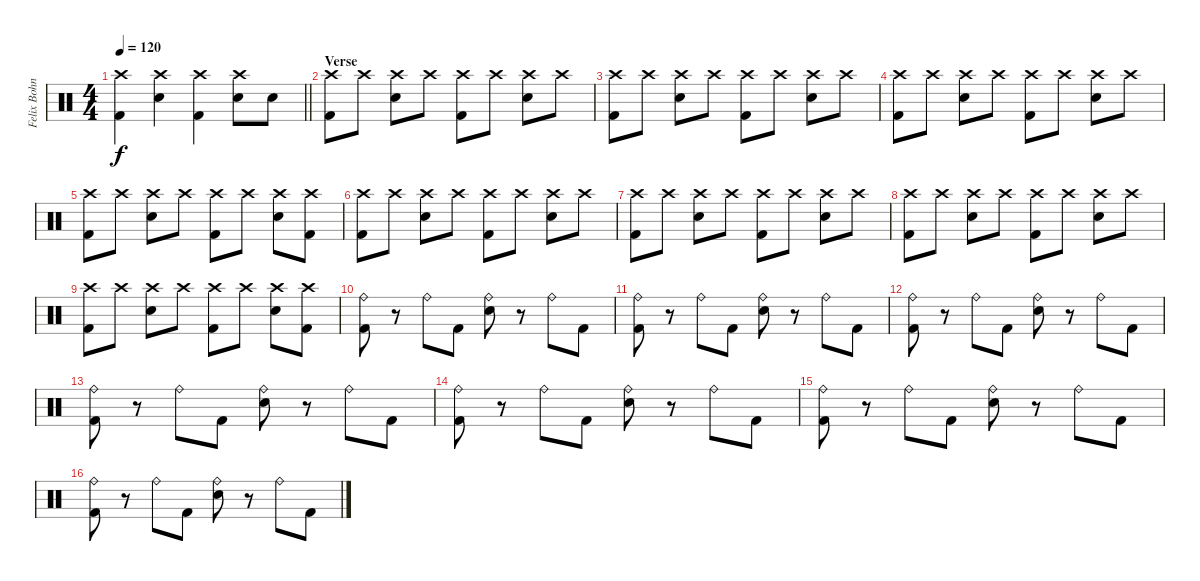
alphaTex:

\track ("Felix Bohnke (Drums)" "Felix Bohn") {instrument percussion}
\staff {score}
\articulation defaults
\ts (4 4)
\tempo 120
\clef neutral
\barLineRight lightlight
\ks c
("Crash high (hit)" "Kick (hit) 2").4{dy f} ("Crash high (hit)" "Snare (hit) 2").4 ("Crash high (hit)" "Kick (hit) 2").4 ("Crash high (hit)" "Snare (hit) 2").8 "Snare (hit) 2".8 |
\section ("" "Verse")
("Crash high (hit)" "Kick (hit) 2").8 "Crash high (hit)".8 ("Crash high (hit)" "Snare (hit) 2").8 "Crash high (hit)".8 ("Crash high (hit)" "Kick (hit) 2").8 "Crash high (hit)".8 ("Crash high (hit)" "Snare (hit) 2").8 "Crash high (hit)".8 |
("Crash high (hit)" "Kick (hit) 2").8 "Crash high (hit)".8 ("Crash high (hit)" "Snare (hit) 2").8 "Crash high (hit)".8 ("Crash high (hit)" "Kick (hit) 2").8 "Crash high (hit)".8 ("Crash high (hit)" "Snare (hit) 2").8 "Crash high (hit)".8 |
("Crash high (hit)" "Kick (hit) 2").8 "Crash high (hit)".8 ("Crash high (hit)" "Snare (hit) 2").8 "Crash high (hit)".8 ("Crash high (hit)" "Kick (hit) 2").8 "Crash high (hit)".8 ("Crash high (hit)" "Snare (hit) 2").8 "Crash high (hit)".8 |
("Crash high (hit)" "Kick (hit) 2").8 "Crash high (hit)".8 ("Crash high (hit)" "Snare (hit) 2").8 "Crash high (hit)".8 ("Crash high (hit)" "Kick (hit) 2").8 "Crash high (hit)".8 ("Crash high (hit)" "Snare (hit) 2").8 ("Crash high (hit)" "Kick (hit) 2").8 |
("Crash high (hit)" "Kick (hit) 2").8 "Crash high (hit)".8 ("Crash high (hit)" "Snare (hit) 2").8 "Crash high (hit)".8 ("Crash high (hit)" "Kick (hit) 2").8 "Crash high (hit)".8 ("Crash high (hit)" "Snare (hit) 2").8 "Crash high (hit)".8 |
("Crash high (hit)" "Kick (hit) 2").8 "Crash high (hit)".8 ("Crash high (hit)" "Snare (hit) 2").8 "Crash high (hit)".8 ("Crash high (hit)" "Kick (hit) 2").8 "Crash high (hit)".8 ("Crash high (hit)" "Snare (hit) 2").8 "Crash high (hit)".8 |
("Crash high (hit)" "Kick (hit) 2").8 "Crash high (hit)".8 ("Crash high (hit)" "Snare (hit) 2").8 "Crash high (hit)".8 ("Crash high (hit)" "Kick (hit) 2").8 "Crash high (hit)".8 ("Crash high (hit)" "Snare (hit) 2").8 "Crash high (hit)".8 |
("Crash high (hit)" "Kick (hit) 2").8 "Crash high (hit)".8 ("Crash high (hit)" "Snare (hit) 2").8 "Crash high (hit)".8 ("Crash high (hit)" "Kick (hit) 2").8 "Crash high (hit)".8 ("Crash high (hit)" "Snare (hit) 2").8 ("Crash high (hit)" "Kick (hit) 2").8 |
("Ride (bell)" "Kick (hit) 2").8 r.8 "Ride (bell)".8 "Kick (hit) 2".8 ("Ride (bell)" "Snare (hit) 2").8 r.8 "Ride (bell)".8 "Kick (hit) 2".8 |
("Ride (bell)" "Kick (hit) 2").8 r.8 "Ride (bell)".8 "Kick (hit) 2".8 ("Ride (bell)" "Snare (hit) 2").8 r.8 "Ride (bell)".8 "Kick (hit) 2".8 |
("Ride (bell)" "Kick (hit) 2").8 r.8 "Ride (bell)".8 "Kick (hit) 2".8 ("Ride (bell)" "Snare (hit) 2").8 r.8 "Ride (bell)".8 "Kick (hit) 2".8 |
("Ride (bell)" "Kick (hit) 2").8 r.8 "Ride (bell)".8 "Kick (hit) 2".8 ("Ride (bell)" "Snare (hit) 2").8 r.8 "Ride (bell)".8 "Kick (hit) 2".8 |
("Ride (bell)" "Kick (hit) 2").8 r.8 "Ride (bell)".8 "Kick (hit) 2".8 ("Ride (bell)" "Snare (hit) 2").8 r.8 "Ride (bell)".8 "Kick (hit) 2".8 |
("Ride (bell)" "Kick (hit) 2").8 r.8 "Ride (bell)".8 "Kick (hit) 2".8 ("Ride (bell)" "Snare (hit) 2").8 r.8 "Ride (bell)".8 "Kick (hit) 2".8 |
("Ride (bell)" "Kick (hit) 2").8 r.8 "Ride (bell)".8 "Kick (hit) 2".8 ("Ride (bell)" "Snare (hit) 2").8 r.8 "Ride (bell)".8 "Kick (hit) 2".8
